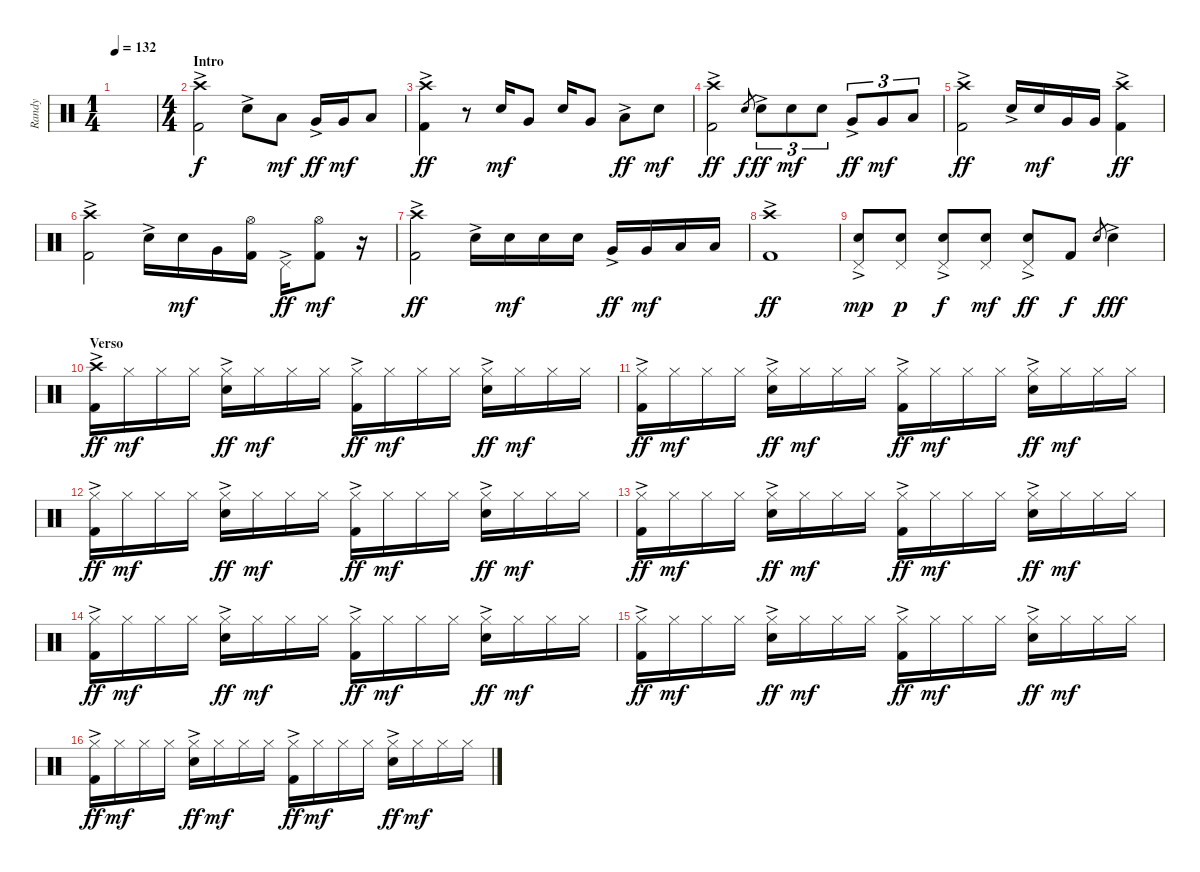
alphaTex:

\track ("Randy" "Randy") {instrument percussion}
\staff {score}
\articulation defaults
\ts (1 4)
\tempo 132
\clef neutral
\ks c
|
\ts (4 4)
\section ("" "Intro")
("Crash high (hit)"{ac} "Kick (hit) 2").2 "Snare (hit) 2"{ac}.8 "Low Tom (hit)".8{dy mf} "Very Low Tom (hit)"{ac}.16{dy ff} "Very Low Tom (hit)".16{dy mf} "Low Floor Tom (hit)".8 |
("Crash high (hit)" "Kick (hit) 2"{ac}).4{dy ff} r.8 "Snare (hit) 2".16{dy mf} "Very Low Tom (hit)".8 "Snare (hit) 2".16 "Very Low Tom (hit)".8 "Low Floor Tom (hit)"{ac}.8{dy ff} "Snare (hit) 2".8{dy mf} |
("Crash high (hit)"{ac} "Kick (hit) 2").2{dy ff} "Snare (hit) 2".8{gr dy f} "Snare (hit) 2"{ac}.8{tu (3 2) dy ff} "Snare (hit) 2".8{tu (3 2) dy mf} "Snare (hit) 2".8{tu (3 2)} "Very Low Tom (hit)"{ac}.8{tu (3 2) dy ff} "Very Low Tom (hit)".8{tu (3 2) dy mf} "Low Floor Tom (hit)".8{tu (3 2)} |
("Crash high (hit)"{ac} "Kick (hit) 2").2{dy ff} "Snare (hit) 2"{ac}.16 "Snare (hit) 2".16{dy mf} "Very Low Tom (hit)".16 "Very Low Tom (hit)".16 ("Crash high (hit)" "Kick (hit) 2"{ac}).4{dy ff} |
("Crash high (hit)"{ac} "Kick (hit) 2").2 "Snare (hit) 2"{ac}.16 "Snare (hit) 2".16{dy mf} "Very Low Tom (hit)".16 ("Hi-Hat (open)" "Kick (hit) 2").16 "Pedal Hi-Hat (hit)"{ac}.16{dy ff} ("Hi-Hat (open)" "Kick (hit) 2").8{dy mf} r.16 |
("Crash high (hit)"{ac} "Kick (hit) 2").2{dy ff} "Snare (hit) 2"{ac}.16 "Snare (hit) 2".16{dy mf} "Snare (hit) 2".16 "Snare (hit) 2".16 "Very Low Tom (hit)"{ac}.16{dy ff} "Very Low Tom (hit)".16{dy mf} "Low Floor Tom (hit)".16 "Low Floor Tom (hit)".16 |
("Crash high (hit)"{ac} "Kick (hit) 2").1{dy ff} |
("Snare (hit) 2"{ac} "Pedal Hi-Hat (hit)").8{dy mp} ("Snare (hit) 2" "Pedal Hi-Hat (hit)").8{dy p} ("Snare (hit) 2"{ac} "Pedal Hi-Hat (hit)").8{dy f} ("Snare (hit) 2" "Pedal Hi-Hat (hit)").8{dy mf} ("Snare (hit) 2"{ac} "Pedal Hi-Hat (hit)").8{dy ff} "Kick (hit) 2".8{dy f} "Snare (hit) 2".8{gr} "Snare (hit) 2"{ac}.4{dy fff} |
\section ("" "Verso")
("Crash high (hit)"{ac} "Kick (hit) 2").16{dy ff} "Hi-Hat (closed)".16{dy mf} "Hi-Hat (closed)".16 "Hi-Hat (closed)".16 ("Hi-Hat (closed)"{ac} "Snare (hit) 2").16{dy ff} "Hi-Hat (closed)".16{dy mf} "Hi-Hat (closed)".16 "Hi-Hat (closed)".16 ("Hi-Hat (closed)"{ac} "Kick (hit) 2").16{dy ff} "Hi-Hat (closed)".16{dy mf} "Hi-Hat (closed)".16 "Hi-Hat (closed)".16 ("Hi-Hat (closed)"{ac} "Snare (hit) 2").16{dy ff} "Hi-Hat (closed)".16{dy mf} "Hi-Hat (closed)".16 "Hi-Hat (closed)".16 |
("Hi-Hat (closed)"{ac} "Kick (hit) 2").16{dy ff} "Hi-Hat (closed)".16{dy mf} "Hi-Hat (closed)".16 "Hi-Hat (closed)".16 ("Hi-Hat (closed)"{ac} "Snare (hit) 2").16{dy ff} "Hi-Hat (closed)".16{dy mf} "Hi-Hat (closed)".16 "Hi-Hat (closed)".16 ("Hi-Hat (closed)"{ac} "Kick (hit) 2").16{dy ff} "Hi-Hat (closed)".16{dy mf} "Hi-Hat (closed)".16 "Hi-Hat (closed)".16 ("Hi-Hat (closed)"{ac} "Snare (hit) 2").16{dy ff} "Hi-Hat (closed)".16{dy mf} "Hi-Hat (closed)".16 "Hi-Hat (closed)".16 |
("Hi-Hat (closed)"{ac} "Kick (hit) 2").16{dy ff} "Hi-Hat (closed)".16{dy mf} "Hi-Hat (closed)".16 "Hi-Hat (closed)".16 ("Hi-Hat (closed)"{ac} "Snare (hit) 2").16{dy ff} "Hi-Hat (closed)".16{dy mf} "Hi-Hat (closed)".16 "Hi-Hat (closed)".16 ("Hi-Hat (closed)"{ac} "Kick (hit) 2").16{dy ff} "Hi-Hat (closed)".16{dy mf} "Hi-Hat (closed)".16 "Hi-Hat (closed)".16 ("Hi-Hat (closed)"{ac} "Snare (hit) 2").16{dy ff} "Hi-Hat (closed)".16{dy mf} "Hi-Hat (closed)".16 "Hi-Hat (closed)".16 |
("Hi-Hat (closed)"{ac} "Kick (hit) 2").16{dy ff} "Hi-Hat (closed)".16{dy mf} "Hi-Hat (closed)".16 "Hi-Hat (closed)".16 ("Hi-Hat (closed)"{ac} "Snare (hit) 2").16{dy ff} "Hi-Hat (closed)".16{dy mf} "Hi-Hat (closed)".16 "Hi-Hat (closed)".16 ("Hi-Hat (closed)"{ac} "Kick (hit) 2").16{dy ff} "Hi-Hat (closed)".16{dy mf} "Hi-Hat (closed)".16 "Hi-Hat (closed)".16 ("Hi-Hat (closed)"{ac} "Snare (hit) 2").16{dy ff} "Hi-Hat (closed)".16{dy mf} "Hi-Hat (closed)".16 "Hi-Hat (closed)".16 |
("Hi-Hat (closed)"{ac} "Kick (hit) 2").16{dy ff} "Hi-Hat (closed)".16{dy mf} "Hi-Hat (closed)".16 "Hi-Hat (closed)".16 ("Hi-Hat (closed)"{ac} "Snare (hit) 2").16{dy ff} "Hi-Hat (closed)".16{dy mf} "Hi-Hat (closed)".16 "Hi-Hat (closed)".16 ("Hi-Hat (closed)"{ac} "Kick (hit) 2").16{dy ff} "Hi-Hat (closed)".16{dy mf} "Hi-Hat (closed)".16 "Hi-Hat (closed)".16 ("Hi-Hat (closed)"{ac} "Snare (hit) 2").16{dy ff} "Hi-Hat (closed)".16{dy mf} "Hi-Hat (closed)".16 "Hi-Hat (closed)".16 |
("Hi-Hat (closed)"{ac} "Kick (hit) 2").16{dy ff} "Hi-Hat (closed)".16{dy mf} "Hi-Hat (closed)".16 "Hi-Hat (closed)".16 ("Hi-Hat (closed)"{ac} "Snare (hit) 2").16{dy ff} "Hi-Hat (closed)".16{dy mf} "Hi-Hat (closed)".16 "Hi-Hat (closed)".16 ("Hi-Hat (closed)"{ac} "Kick (hit) 2").16{dy ff} "Hi-Hat (closed)".16{dy mf} "Hi-Hat (closed)".16 "Hi-Hat (closed)".16 ("Hi-Hat (closed)"{ac} "Snare (hit) 2").16{dy ff} "Hi-Hat (closed)".16{dy mf} "Hi-Hat (closed)".16 "Hi-Hat (closed)".16 |
("Hi-Hat (closed)"{ac} "Kick (hit) 2").16{dy ff} "Hi-Hat (closed)".16{dy mf} "Hi-Hat (closed)".16 "Hi-Hat (closed)".16 ("Hi-Hat (closed)"{ac} "Snare (hit) 2").16{dy ff} "Hi-Hat (closed)".16{dy mf} "Hi-Hat (closed)".16 "Hi-Hat (closed)".16 ("Hi-Hat (closed)"{ac} "Kick (hit) 2").16{dy ff} "Hi-Hat (closed)".16{dy mf} "Hi-Hat (closed)".16 "Hi-Hat (closed)".16 ("Hi-Hat (closed)"{ac} "Snare (hit) 2").16{dy ff} "Hi-Hat (closed)".16{dy mf} "Hi-Hat (closed)".16 "Hi-Hat (closed)".16
